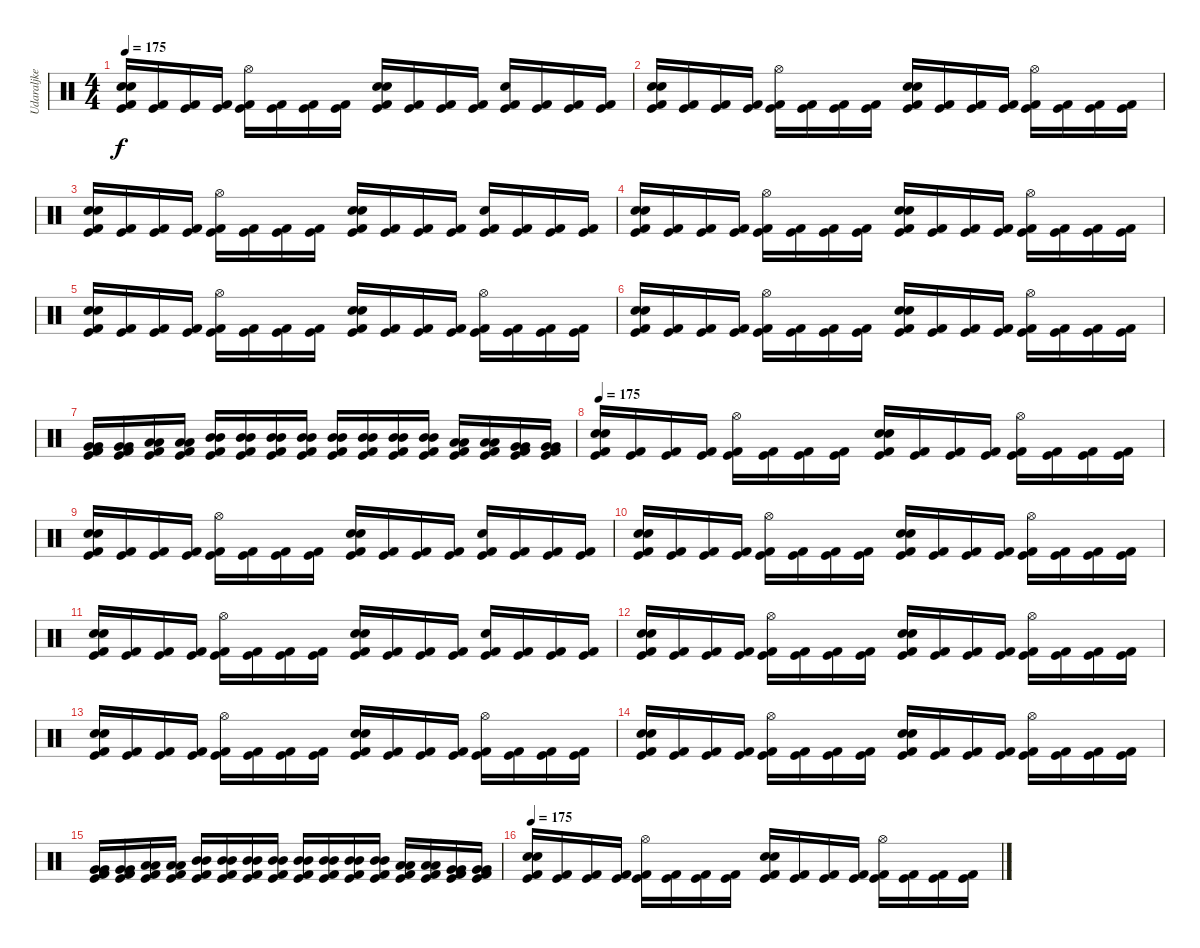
\track ("Udaraljke" "Udaraljke") {instrument percussion}
\staff {score}
\articulation defaults
\ts (4 4)
\tempo 175
\clef neutral
\ks c
("Electric Snare (hit)" "Snare (hit) 2" "Kick (hit) 2" "Kick (hit)").16{dy f} ("Kick (hit) 2" "Kick (hit)").16 ("Kick (hit) 2" "Kick (hit)").16 ("Kick (hit) 2" "Kick (hit)").16 ("Hi-Hat (open)" "Kick (hit) 2" "Kick (hit)").16 ("Kick (hit) 2" "Kick (hit)").16 ("Kick (hit) 2" "Kick (hit)").16 ("Kick (hit) 2" "Kick (hit)").16 ("Electric Snare (hit)" "Snare (hit) 2" "Kick (hit) 2" "Kick (hit)").16 ("Kick (hit) 2" "Kick (hit)").16 ("Kick (hit) 2" "Kick (hit)").16 ("Kick (hit) 2" "Kick (hit)").16 ("Electric Snare (hit)" "Kick (hit) 2" "Kick (hit)").16 ("Kick (hit) 2" "Kick (hit)").16 ("Kick (hit) 2" "Kick (hit)").16 ("Kick (hit) 2" "Kick (hit)").16 |
("Electric Snare (hit)" "Snare (hit) 2" "Kick (hit) 2" "Kick (hit)").16 ("Kick (hit) 2" "Kick (hit)").16 ("Kick (hit) 2" "Kick (hit)").16 ("Kick (hit) 2" "Kick (hit)").16 ("Hi-Hat (open)" "Kick (hit) 2" "Kick (hit)").16 ("Kick (hit) 2" "Kick (hit)").16 ("Kick (hit) 2" "Kick (hit)").16 ("Kick (hit) 2" "Kick (hit)").16 ("Electric Snare (hit)" "Snare (hit) 2" "Kick (hit) 2" "Kick (hit)").16 ("Kick (hit) 2" "Kick (hit)").16 ("Kick (hit) 2" "Kick (hit)").16 ("Kick (hit) 2" "Kick (hit)").16 ("Hi-Hat (open)" "Kick (hit) 2" "Kick (hit)").16 ("Kick (hit) 2" "Kick (hit)").16 ("Kick (hit) 2" "Kick (hit)").16 ("Kick (hit) 2" "Kick (hit)").16 |
("Electric Snare (hit)" "Snare (hit) 2" "Kick (hit) 2" "Kick (hit)").16 ("Kick (hit) 2" "Kick (hit)").16 ("Kick (hit) 2" "Kick (hit)").16 ("Kick (hit) 2" "Kick (hit)").16 ("Hi-Hat (open)" "Kick (hit) 2" "Kick (hit)").16 ("Kick (hit) 2" "Kick (hit)").16 ("Kick (hit) 2" "Kick (hit)").16 ("Kick (hit) 2" "Kick (hit)").16 ("Electric Snare (hit)" "Snare (hit) 2" "Kick (hit) 2" "Kick (hit)").16 ("Kick (hit) 2" "Kick (hit)").16 ("Kick (hit) 2" "Kick (hit)").16 ("Kick (hit) 2" "Kick (hit)").16 ("Electric Snare (hit)" "Kick (hit) 2" "Kick (hit)").16 ("Kick (hit) 2" "Kick (hit)").16 ("Kick (hit) 2" "Kick (hit)").16 ("Kick (hit) 2" "Kick (hit)").16 |
("Electric Snare (hit)" "Snare (hit) 2" "Kick (hit) 2" "Kick (hit)").16 ("Kick (hit) 2" "Kick (hit)").16 ("Kick (hit) 2" "Kick (hit)").16 ("Kick (hit) 2" "Kick (hit)").16 ("Hi-Hat (open)" "Kick (hit) 2" "Kick (hit)").16 ("Kick (hit) 2" "Kick (hit)").16 ("Kick (hit) 2" "Kick (hit)").16 ("Kick (hit) 2" "Kick (hit)").16 ("Electric Snare (hit)" "Snare (hit) 2" "Kick (hit) 2" "Kick (hit)").16 ("Kick (hit) 2" "Kick (hit)").16 ("Kick (hit) 2" "Kick (hit)").16 ("Kick (hit) 2" "Kick (hit)").16 ("Hi-Hat (open)" "Kick (hit) 2" "Kick (hit)").16 ("Kick (hit) 2" "Kick (hit)").16 ("Kick (hit) 2" "Kick (hit)").16 ("Kick (hit) 2" "Kick (hit)").16 |
("Electric Snare (hit)" "Snare (hit) 2" "Kick (hit) 2" "Kick (hit)").16 ("Kick (hit) 2" "Kick (hit)").16 ("Kick (hit) 2" "Kick (hit)").16 ("Kick (hit) 2" "Kick (hit)").16 ("Hi-Hat (open)" "Kick (hit) 2" "Kick (hit)").16 ("Kick (hit) 2" "Kick (hit)").16 ("Kick (hit) 2" "Kick (hit)").16 ("Kick (hit) 2" "Kick (hit)").16 ("Electric Snare (hit)" "Snare (hit) 2" "Kick (hit) 2" "Kick (hit)").16 ("Kick (hit) 2" "Kick (hit)").16 ("Kick (hit) 2" "Kick (hit)").16 ("Kick (hit) 2" "Kick (hit)").16 ("Hi-Hat (open)" "Kick (hit) 2" "Kick (hit)").16 ("Kick (hit) 2" "Kick (hit)").16 ("Kick (hit) 2" "Kick (hit)").16 ("Kick (hit) 2" "Kick (hit)").16 |
("Electric Snare (hit)" "Snare (hit) 2" "Kick (hit) 2" "Kick (hit)").16 ("Kick (hit) 2" "Kick (hit)").16 ("Kick (hit) 2" "Kick (hit)").16 ("Kick (hit) 2" "Kick (hit)").16 ("Hi-Hat (open)" "Kick (hit) 2" "Kick (hit)").16 ("Kick (hit) 2" "Kick (hit)").16 ("Kick (hit) 2" "Kick (hit)").16 ("Kick (hit) 2" "Kick (hit)").16 ("Electric Snare (hit)" "Snare (hit) 2" "Kick (hit) 2" "Kick (hit)").16 ("Kick (hit) 2" "Kick (hit)").16 ("Kick (hit) 2" "Kick (hit)").16 ("Kick (hit) 2" "Kick (hit)").16 ("Hi-Hat (open)" "Kick (hit) 2" "Kick (hit)").16 ("Kick (hit) 2" "Kick (hit)").16 ("Kick (hit) 2" "Kick (hit)").16 ("Kick (hit) 2" "Kick (hit)").16 |
("Very Low Tom (hit)" "Very Low Tom (hit)" "Kick (hit) 2" "Kick (hit)").16 ("Very Low Tom (hit)" "Very Low Tom (hit)" "Kick (hit) 2" "Kick (hit)").16 ("Low Tom (hit)" "Low Tom (hit)" "Kick (hit) 2" "Kick (hit)").16 ("Low Tom (hit)" "Low Tom (hit)" "Kick (hit) 2" "Kick (hit)").16 ("Mid Tom (hit)" "Mid Tom (hit)" "Kick (hit) 2" "Kick (hit)").16 ("Mid Tom (hit)" "Mid Tom (hit)" "Kick (hit) 2" "Kick (hit)").16 ("Mid Tom (hit)" "Mid Tom (hit)" "Kick (hit) 2" "Kick (hit)").16 ("Mid Tom (hit)" "Mid Tom (hit)" "Kick (hit) 2" "Kick (hit)").16 ("Mid Tom (hit)" "Mid Tom (hit)" "Kick (hit) 2" "Kick (hit)").16 ("Mid Tom (hit)" "Mid Tom (hit)" "Kick (hit) 2" "Kick (hit)").16 ("Mid Tom (hit)" "Mid Tom (hit)" "Kick (hit) 2" "Kick (hit)").16 ("Mid Tom (hit)" "Mid Tom (hit)" "Kick (hit) 2" "Kick (hit)").16 ("Low Tom (hit)" "Low Tom (hit)" "Kick (hit) 2" "Kick (hit)").16 ("Low Tom (hit)" "Low Tom (hit)" "Kick (hit) 2" "Kick (hit)").16 ("Very Low Tom (hit)" "Very Low Tom (hit)" "Kick (hit) 2" "Kick (hit)").16 ("Very Low Tom (hit)" "Very Low Tom (hit)" "Kick (hit) 2" "Kick (hit)").16 |
\tempo 175
("Electric Snare (hit)" "Snare (hit) 2" "Kick (hit) 2" "Kick (hit)").16 ("Kick (hit) 2" "Kick (hit)").16 ("Kick (hit) 2" "Kick (hit)").16 ("Kick (hit) 2" "Kick (hit)").16 ("Hi-Hat (open)" "Kick (hit) 2" "Kick (hit)").16 ("Kick (hit) 2" "Kick (hit)").16 ("Kick (hit) 2" "Kick (hit)").16 ("Kick (hit) 2" "Kick (hit)").16 ("Electric Snare (hit)" "Snare (hit) 2" "Kick (hit) 2" "Kick (hit)").16 ("Kick (hit) 2" "Kick (hit)").16 ("Kick (hit) 2" "Kick (hit)").16 ("Kick (hit) 2" "Kick (hit)").16 ("Hi-Hat (open)" "Kick (hit) 2" "Kick (hit)").16 ("Kick (hit) 2" "Kick (hit)").16 ("Kick (hit) 2" "Kick (hit)").16 ("Kick (hit) 2" "Kick (hit)").16 |
("Electric Snare (hit)" "Snare (hit) 2" "Kick (hit) 2" "Kick (hit)").16 ("Kick (hit) 2" "Kick (hit)").16 ("Kick (hit) 2" "Kick (hit)").16 ("Kick (hit) 2" "Kick (hit)").16 ("Hi-Hat (open)" "Kick (hit) 2" "Kick (hit)").16 ("Kick (hit) 2" "Kick (hit)").16 ("Kick (hit) 2" "Kick (hit)").16 ("Kick (hit) 2" "Kick (hit)").16 ("Electric Snare (hit)" "Snare (hit) 2" "Kick (hit) 2" "Kick (hit)").16 ("Kick (hit) 2" "Kick (hit)").16 ("Kick (hit) 2" "Kick (hit)").16 ("Kick (hit) 2" "Kick (hit)").16 ("Electric Snare (hit)" "Kick (hit) 2" "Kick (hit)").16 ("Kick (hit) 2" "Kick (hit)").16 ("Kick (hit) 2" "Kick (hit)").16 ("Kick (hit) 2" "Kick (hit)").16 |
("Electric Snare (hit)" "Snare (hit) 2" "Kick (hit) 2" "Kick (hit)").16 ("Kick (hit) 2" "Kick (hit)").16 ("Kick (hit) 2" "Kick (hit)").16 ("Kick (hit) 2" "Kick (hit)").16 ("Hi-Hat (open)" "Kick (hit) 2" "Kick (hit)").16 ("Kick (hit) 2" "Kick (hit)").16 ("Kick (hit) 2" "Kick (hit)").16 ("Kick (hit) 2" "Kick (hit)").16 ("Electric Snare (hit)" "Snare (hit) 2" "Kick (hit) 2" "Kick (hit)").16 ("Kick (hit) 2" "Kick (hit)").16 ("Kick (hit) 2" "Kick (hit)").16 ("Kick (hit) 2" "Kick (hit)").16 ("Hi-Hat (open)" "Kick (hit) 2" "Kick (hit)").16 ("Kick (hit) 2" "Kick (hit)").16 ("Kick (hit) 2" "Kick (hit)").16 ("Kick (hit) 2" "Kick (hit)").16 |
("Electric Snare (hit)" "Snare (hit) 2" "Kick (hit) 2" "Kick (hit)").16 ("Kick (hit) 2" "Kick (hit)").16 ("Kick (hit) 2" "Kick (hit)").16 ("Kick (hit) 2" "Kick (hit)").16 ("Hi-Hat (open)" "Kick (hit) 2" "Kick (hit)").16 ("Kick (hit) 2" "Kick (hit)").16 ("Kick (hit) 2" "Kick (hit)").16 ("Kick (hit) 2" "Kick (hit)").16 ("Electric Snare (hit)" "Snare (hit) 2" "Kick (hit) 2" "Kick (hit)").16 ("Kick (hit) 2" "Kick (hit)").16 ("Kick (hit) 2" "Kick (hit)").16 ("Kick (hit) 2" "Kick (hit)").16 ("Electric Snare (hit)" "Kick (hit) 2" "Kick (hit)").16 ("Kick (hit) 2" "Kick (hit)").16 ("Kick (hit) 2" "Kick (hit)").16 ("Kick (hit) 2" "Kick (hit)").16 |
("Electric Snare (hit)" "Snare (hit) 2" "Kick (hit) 2" "Kick (hit)").16 ("Kick (hit) 2" "Kick (hit)").16 ("Kick (hit) 2" "Kick (hit)").16 ("Kick (hit) 2" "Kick (hit)").16 ("Hi-Hat (open)" "Kick (hit) 2" "Kick (hit)").16 ("Kick (hit) 2" "Kick (hit)").16 ("Kick (hit) 2" "Kick (hit)").16 ("Kick (hit) 2" "Kick (hit)").16 ("Electric Snare (hit)" "Snare (hit) 2" "Kick (hit) 2" "Kick (hit)").16 ("Kick (hit) 2" "Kick (hit)").16 ("Kick (hit) 2" "Kick (hit)").16 ("Kick (hit) 2" "Kick (hit)").16 ("Hi-Hat (open)" "Kick (hit) 2" "Kick (hit)").16 ("Kick (hit) 2" "Kick (hit)").16 ("Kick (hit) 2" "Kick (hit)").16 ("Kick (hit) 2" "Kick (hit)").16 |
("Electric Snare (hit)" "Snare (hit) 2" "Kick (hit) 2" "Kick (hit)").16 ("Kick (hit) 2" "Kick (hit)").16 ("Kick (hit) 2" "Kick (hit)").16 ("Kick (hit) 2" "Kick (hit)").16 ("Hi-Hat (open)" "Kick (hit) 2" "Kick (hit)").16 ("Kick (hit) 2" "Kick (hit)").16 ("Kick (hit) 2" "Kick (hit)").16 ("Kick (hit) 2" "Kick (hit)").16 ("Electric Snare (hit)" "Snare (hit) 2" "Kick (hit) 2" "Kick (hit)").16 ("Kick (hit) 2" "Kick (hit)").16 ("Kick (hit) 2" "Kick (hit)").16 ("Kick (hit) 2" "Kick (hit)").16 ("Hi-Hat (open)" "Kick (hit) 2" "Kick (hit)").16 ("Kick (hit) 2" "Kick (hit)").16 ("Kick (hit) 2" "Kick (hit)").16 ("Kick (hit) 2" "Kick (hit)").16 |
("Electric Snare (hit)" "Snare (hit) 2" "Kick (hit) 2" "Kick (hit)").16 ("Kick (hit) 2" "Kick (hit)").16 ("Kick (hit) 2" "Kick (hit)").16 ("Kick (hit) 2" "Kick (hit)").16 ("Hi-Hat (open)" "Kick (hit) 2" "Kick (hit)").16 ("Kick (hit) 2" "Kick (hit)").16 ("Kick (hit) 2" "Kick (hit)").16 ("Kick (hit) 2" "Kick (hit)").16 ("Electric Snare (hit)" "Snare (hit) 2" "Kick (hit) 2" "Kick (hit)").16 ("Kick (hit) 2" "Kick (hit)").16 ("Kick (hit) 2" "Kick (hit)").16 ("Kick (hit) 2" "Kick (hit)").16 ("Hi-Hat (open)" "Kick (hit) 2" "Kick (hit)").16 ("Kick (hit) 2" "Kick (hit)").16 ("Kick (hit) 2" "Kick (hit)").16 ("Kick (hit) 2" "Kick (hit)").16 |
("Very Low Tom (hit)" "Very Low Tom (hit)" "Kick (hit) 2" "Kick (hit)").16 ("Very Low Tom (hit)" "Very Low Tom (hit)" "Kick (hit) 2" "Kick (hit)").16 ("Low Tom (hit)" "Low Tom (hit)" "Kick (hit) 2" "Kick (hit)").16 ("Low Tom (hit)" "Low Tom (hit)" "Kick (hit) 2" "Kick (hit)").16 ("Mid Tom (hit)" "Mid Tom (hit)" "Kick (hit) 2" "Kick (hit)").16 ("Mid Tom (hit)" "Mid Tom (hit)" "Kick (hit) 2" "Kick (hit)").16 ("Mid Tom (hit)" "Mid Tom (hit)" "Kick (hit) 2" "Kick (hit)").16 ("Mid Tom (hit)" "Mid Tom (hit)" "Kick (hit) 2" "Kick (hit)").16 ("Mid Tom (hit)" "Mid Tom (hit)" "Kick (hit) 2" "Kick (hit)").16 ("Mid Tom (hit)" "Mid Tom (hit)" "Kick (hit) 2" "Kick (hit)").16 ("Mid Tom (hit)" "Mid Tom (hit)" "Kick (hit) 2" "Kick (hit)").16 ("Mid Tom (hit)" "Mid Tom (hit)" "Kick (hit) 2" "Kick (hit)").16 ("Low Tom (hit)" "Low Tom (hit)" "Kick (hit) 2" "Kick (hit)").16 ("Low Tom (hit)" "Low Tom (hit)" "Kick (hit) 2" "Kick (hit)").16 ("Very Low Tom (hit)" "Very Low Tom (hit)" "Kick (hit) 2" "Kick (hit)").16 ("Very Low Tom (hit)" "Very Low Tom (hit)" "Kick (hit) 2" "Kick (hit)").16 |
\tempo 175
("Electric Snare (hit)" "Snare (hit) 2" "Kick (hit) 2" "Kick (hit)").16 ("Kick (hit) 2" "Kick (hit)").16 ("Kick (hit) 2" "Kick (hit)").16 ("Kick (hit) 2" "Kick (hit)").16 ("Hi-Hat (open)" "Kick (hit) 2" "Kick (hit)").16 ("Kick (hit) 2" "Kick (hit)").16 ("Kick (hit) 2" "Kick (hit)").16 ("Kick (hit) 2" "Kick (hit)").16 ("Electric Snare (hit)" "Snare (hit) 2" "Kick (hit) 2" "Kick (hit)").16 ("Kick (hit) 2" "Kick (hit)").16 ("Kick (hit) 2" "Kick (hit)").16 ("Kick (hit) 2" "Kick (hit)").16 ("Hi-Hat (open)" "Kick (hit) 2" "Kick (hit)").16 ("Kick (hit) 2" "Kick (hit)").16 ("Kick (hit) 2" "Kick (hit)").16 ("Kick (hit) 2" "Kick (hit)").16
